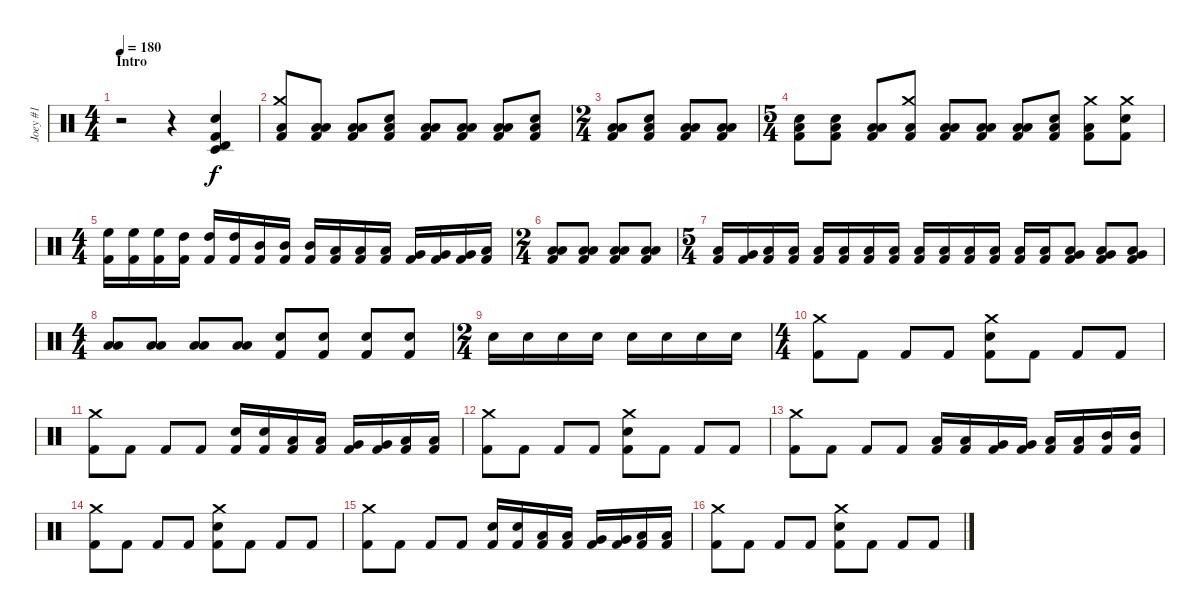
\track ("Joey #1" "Joey #1") {instrument percussion}
\staff {score}
\articulation defaults
\ts (4 4)
\section ("" "Intro")
\tempo 180
\clef neutral
\ks c
r.2{dy f} r.4 ("Timbale high (hit)" "Timbale low (hit)" "Electric Snare (hit)" "Kick (hit) 2").4 |
("Crash medium (hit)" "Low Floor Tom (hit)" "Kick (hit) 2").8 ("Low Tom (hit)" "Low Floor Tom (hit)" "Kick (hit) 2").8 ("Low Tom (hit)" "Low Floor Tom (hit)" "Kick (hit) 2").8 ("Low Floor Tom (hit)" "Electric Snare (hit)" "Kick (hit) 2").8 ("Low Tom (hit)" "Low Floor Tom (hit)" "Kick (hit) 2").8 ("Low Tom (hit)" "Low Floor Tom (hit)" "Kick (hit) 2").8 ("Low Tom (hit)" "Low Floor Tom (hit)" "Kick (hit) 2").8 ("Low Floor Tom (hit)" "Electric Snare (hit)" "Kick (hit) 2").8 |
\ts (2 4)
("Low Tom (hit)" "Low Floor Tom (hit)" "Kick (hit) 2").8 ("Low Floor Tom (hit)" "Electric Snare (hit)" "Kick (hit) 2").8 ("Low Tom (hit)" "Low Floor Tom (hit)" "Kick (hit) 2").8 ("Low Tom (hit)" "Low Floor Tom (hit)" "Kick (hit) 2").8 |
\ts (5 4)
("Electric Snare (hit)" "Low Floor Tom (hit)" "Kick (hit) 2").8 ("Electric Snare (hit)" "Low Floor Tom (hit)" "Kick (hit) 2").8 ("Low Tom (hit)" "Low Floor Tom (hit)" "Kick (hit) 2").8 ("Crash medium (hit)" "Low Floor Tom (hit)" "Kick (hit) 2").8 ("Low Tom (hit)" "Low Floor Tom (hit)" "Kick (hit) 2").8 ("Low Tom (hit)" "Low Floor Tom (hit)" "Kick (hit) 2").8 ("Low Tom (hit)" "Low Floor Tom (hit)" "Kick (hit) 2").8 ("Electric Snare (hit)" "Low Floor Tom (hit)" "Kick (hit) 2").8 ("Crash medium (hit)" "Low Floor Tom (hit)" "Kick (hit) 2").8 ("Crash medium (hit)" "Electric Snare (hit)" "Kick (hit) 2").8 |
\ts (4 4)
("High Floor Tom (hit)" "Kick (hit) 2").16 ("High Floor Tom (hit)" "Kick (hit) 2").16 ("High Floor Tom (hit)" "Kick (hit) 2").16 ("High Tom (hit)" "Kick (hit) 2").16 ("High Tom (hit)" "Kick (hit) 2").16 ("High Tom (hit)" "Kick (hit) 2").16 ("Mid Tom (hit)" "Kick (hit) 2").16 ("Mid Tom (hit)" "Kick (hit) 2").16 ("Mid Tom (hit)" "Kick (hit) 2").16 ("Low Tom (hit)" "Kick (hit) 2").16 ("Low Tom (hit)" "Kick (hit) 2").16 ("Low Tom (hit)" "Kick (hit) 2").16 ("Very Low Tom (hit)" "Kick (hit) 2").16 ("Very Low Tom (hit)" "Kick (hit) 2").16 ("Very Low Tom (hit)" "Kick (hit) 2").16 ("Low Floor Tom (hit)" "Kick (hit) 2").16 |
\ts (2 4)
("Low Tom (hit)" "Low Floor Tom (hit)" "Kick (hit) 2").8 ("Low Tom (hit)" "Low Floor Tom (hit)" "Kick (hit) 2").8 ("Low Tom (hit)" "Low Floor Tom (hit)" "Kick (hit) 2").8 ("Low Tom (hit)" "Low Floor Tom (hit)" "Kick (hit) 2").8 |
\ts (5 4)
("Low Tom (hit)" "Kick (hit) 2").16 ("Very Low Tom (hit)" "Kick (hit) 2").16 ("Low Floor Tom (hit)" "Kick (hit) 2").16 ("Low Tom (hit)" "Kick (hit) 2").16 ("Low Floor Tom (hit)" "Kick (hit) 2").16 ("Low Tom (hit)" "Kick (hit) 2").16 ("Low Floor Tom (hit)" "Kick (hit) 2").16 ("Low Tom (hit)" "Kick (hit) 2").16 ("Low Floor Tom (hit)" "Kick (hit) 2").16 ("Low Tom (hit)" "Kick (hit) 2").16 ("Low Floor Tom (hit)" "Kick (hit) 2").16 ("Low Tom (hit)" "Kick (hit) 2").16 ("Low Floor Tom (hit)" "Kick (hit) 2").16 ("Low Tom (hit)" "Kick (hit) 2").16 ("Very Low Tom (hit)" "Low Floor Tom (hit)" "Kick (hit) 2").8 ("Very Low Tom (hit)" "Low Floor Tom (hit)" "Kick (hit) 2").8 ("Very Low Tom (hit)" "Low Floor Tom (hit)" "Kick (hit) 2").8 |
\ts (4 4)
("Low Tom (hit)" "Low Floor Tom (hit)").8 ("Low Tom (hit)" "Low Floor Tom (hit)").8 ("Low Tom (hit)" "Low Floor Tom (hit)").8 ("Low Tom (hit)" "Low Floor Tom (hit)").8 ("Electric Snare (hit)" "Kick (hit) 2").8 ("Electric Snare (hit)" "Kick (hit) 2").8 ("Electric Snare (hit)" "Kick (hit) 2").8 ("Electric Snare (hit)" "Kick (hit) 2").8 |
\ts (2 4)
"Electric Snare (hit)".16 "Electric Snare (hit)".16 "Electric Snare (hit)".16 "Electric Snare (hit)".16 "Electric Snare (hit)".16 "Electric Snare (hit)".16 "Electric Snare (hit)".16 "Electric Snare (hit)".16 |
\ts (4 4)
("Crash medium (hit)" "Kick (hit) 2").8 "Kick (hit) 2".8 "Kick (hit) 2".8 "Kick (hit) 2".8 ("Crash medium (hit)" "Electric Snare (hit)" "Kick (hit) 2").8 "Kick (hit) 2".8 "Kick (hit) 2".8 "Kick (hit) 2".8 |
("Crash medium (hit)" "Kick (hit) 2").8 "Kick (hit) 2".8 "Kick (hit) 2".8 "Kick (hit) 2".8 ("Electric Snare (hit)" "Kick (hit) 2").16 ("Electric Snare (hit)" "Kick (hit) 2").16 ("Low Tom (hit)" "Kick (hit) 2").16 ("Low Tom (hit)" "Kick (hit) 2").16 ("Very Low Tom (hit)" "Kick (hit) 2").16 ("Very Low Tom (hit)" "Kick (hit) 2").16 ("Low Floor Tom (hit)" "Kick (hit) 2").16 ("Low Floor Tom (hit)" "Kick (hit) 2").16 |
("Crash medium (hit)" "Kick (hit) 2").8 "Kick (hit) 2".8 "Kick (hit) 2".8 "Kick (hit) 2".8 ("Crash medium (hit)" "Electric Snare (hit)" "Kick (hit) 2").8 "Kick (hit) 2".8 "Kick (hit) 2".8 "Kick (hit) 2".8 |
("Crash medium (hit)" "Kick (hit) 2").8 "Kick (hit) 2".8 "Kick (hit) 2".8 "Kick (hit) 2".8 ("Low Tom (hit)" "Kick (hit) 2").16 ("Low Tom (hit)" "Kick (hit) 2").16 ("Very Low Tom (hit)" "Kick (hit) 2").16 ("Very Low Tom (hit)" "Kick (hit) 2").16 ("Low Tom (hit)" "Kick (hit) 2").16 ("Low Tom (hit)" "Kick (hit) 2").16 ("Mid Tom (hit)" "Kick (hit) 2").16 ("Mid Tom (hit)" "Kick (hit) 2").16 |
("Crash medium (hit)" "Kick (hit) 2").8 "Kick (hit) 2".8 "Kick (hit) 2".8 "Kick (hit) 2".8 ("Crash medium (hit)" "Electric Snare (hit)" "Kick (hit) 2").8 "Kick (hit) 2".8 "Kick (hit) 2".8 "Kick (hit) 2".8 |
("Crash medium (hit)" "Kick (hit) 2").8 "Kick (hit) 2".8 "Kick (hit) 2".8 "Kick (hit) 2".8 ("Electric Snare (hit)" "Kick (hit) 2").16 ("Electric Snare (hit)" "Kick (hit) 2").16 ("Low Tom (hit)" "Kick (hit) 2").16 ("Low Tom (hit)" "Kick (hit) 2").16 ("Very Low Tom (hit)" "Kick (hit) 2").16 ("Very Low Tom (hit)" "Kick (hit) 2").16 ("Low Floor Tom (hit)" "Kick (hit) 2").16 ("Low Floor Tom (hit)" "Kick (hit) 2").16 |
("Crash medium (hit)" "Kick (hit) 2").8 "Kick (hit) 2".8 "Kick (hit) 2".8 "Kick (hit) 2".8 ("Crash medium (hit)" "Electric Snare (hit)" "Kick (hit) 2").8 "Kick (hit) 2".8 "Kick (hit) 2".8 "Kick (hit) 2".8
